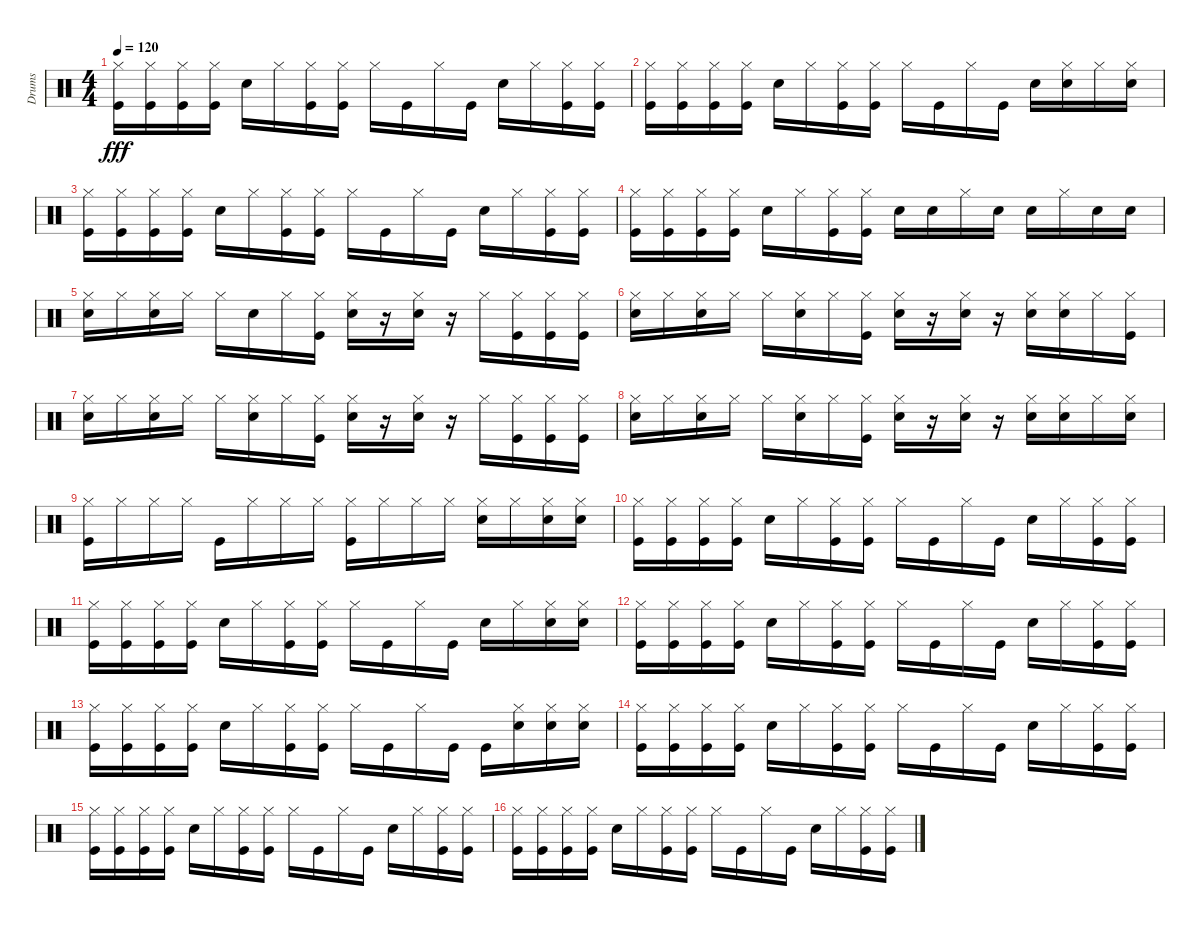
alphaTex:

\track ("Drums" "Drums") {instrument percussion}
\staff {score}
\articulation defaults
\ts (4 4)
\tempo 120
\clef neutral
\ks c
("Kick (hit)" "Hi-Hat (closed)").16{dy fff} ("Kick (hit)" "Hi-Hat (closed)").16 ("Kick (hit)" "Hi-Hat (closed)").16 ("Kick (hit)" "Hi-Hat (closed)").16 "Snare (hit) 2".16 "Hi-Hat (closed)".16 ("Kick (hit)" "Hi-Hat (closed)").16 ("Kick (hit)" "Hi-Hat (closed)").16 "Hi-Hat (closed)".16 "Kick (hit)".16 "Hi-Hat (closed)".16 "Kick (hit)".16 "Snare (hit) 2".16 "Hi-Hat (closed)".16 ("Kick (hit)" "Hi-Hat (closed)").16 ("Kick (hit)" "Hi-Hat (closed)").16 |
("Kick (hit)" "Hi-Hat (closed)").16 ("Kick (hit)" "Hi-Hat (closed)").16 ("Kick (hit)" "Hi-Hat (closed)").16 ("Kick (hit)" "Hi-Hat (closed)").16 "Snare (hit) 2".16 "Hi-Hat (closed)".16 ("Kick (hit)" "Hi-Hat (closed)").16 ("Kick (hit)" "Hi-Hat (closed)").16 "Hi-Hat (closed)".16 "Kick (hit)".16 "Hi-Hat (closed)".16 "Kick (hit)".16 "Snare (hit) 2".16 ("Snare (hit) 2" "Hi-Hat (closed)").16 "Hi-Hat (closed)".16 ("Snare (hit) 2" "Hi-Hat (closed)").16 |
("Kick (hit)" "Hi-Hat (closed)").16 ("Kick (hit)" "Hi-Hat (closed)").16 ("Kick (hit)" "Hi-Hat (closed)").16 ("Kick (hit)" "Hi-Hat (closed)").16 "Snare (hit) 2".16 "Hi-Hat (closed)".16 ("Kick (hit)" "Hi-Hat (closed)").16 ("Kick (hit)" "Hi-Hat (closed)").16 "Hi-Hat (closed)".16 "Kick (hit)".16 "Hi-Hat (closed)".16 "Kick (hit)".16 "Snare (hit) 2".16 "Hi-Hat (closed)".16 ("Kick (hit)" "Hi-Hat (closed)").16 ("Kick (hit)" "Hi-Hat (closed)").16 |
("Kick (hit)" "Hi-Hat (closed)").16 ("Kick (hit)" "Hi-Hat (closed)").16 ("Kick (hit)" "Hi-Hat (closed)").16 ("Kick (hit)" "Hi-Hat (closed)").16 "Snare (hit) 2".16 "Hi-Hat (closed)".16 ("Kick (hit)" "Hi-Hat (closed)").16 ("Kick (hit)" "Hi-Hat (closed)").16 "Snare (hit) 2".16 "Snare (hit) 2".16 "Hi-Hat (closed)".16 "Snare (hit) 2".16 "Snare (hit) 2".16 "Hi-Hat (closed)".16 "Snare (hit) 2".16 "Snare (hit) 2".16 |
("Snare (hit) 2" "Hi-Hat (closed)").16 "Hi-Hat (closed)".16 ("Snare (hit) 2" "Hi-Hat (closed)").16 "Hi-Hat (closed)".16 "Hi-Hat (closed)".16 "Snare (hit) 2".16 "Hi-Hat (closed)".16 ("Kick (hit)" "Hi-Hat (closed)").16 ("Snare (hit) 2" "Hi-Hat (closed)").16 r.16 ("Snare (hit) 2" "Hi-Hat (closed)").16 r.16 "Hi-Hat (closed)".16 ("Kick (hit)" "Hi-Hat (closed)").16 ("Kick (hit)" "Hi-Hat (closed)").16 ("Kick (hit)" "Hi-Hat (closed)").16 |
("Snare (hit) 2" "Hi-Hat (closed)").16 "Hi-Hat (closed)".16 ("Snare (hit) 2" "Hi-Hat (closed)").16 "Hi-Hat (closed)".16 "Hi-Hat (closed)".16 ("Snare (hit) 2" "Hi-Hat (closed)").16 "Hi-Hat (closed)".16 ("Kick (hit)" "Hi-Hat (closed)").16 ("Snare (hit) 2" "Hi-Hat (closed)").16 r.16 ("Snare (hit) 2" "Hi-Hat (closed)").16 r.16 ("Snare (hit) 2" "Hi-Hat (closed)").16 ("Snare (hit) 2" "Hi-Hat (closed)").16 "Hi-Hat (closed)".16 ("Kick (hit)" "Hi-Hat (closed)").16 |
("Snare (hit) 2" "Hi-Hat (closed)").16 "Hi-Hat (closed)".16 ("Snare (hit) 2" "Hi-Hat (closed)").16 "Hi-Hat (closed)".16 "Hi-Hat (closed)".16 ("Snare (hit) 2" "Hi-Hat (closed)").16 "Hi-Hat (closed)".16 ("Kick (hit)" "Hi-Hat (closed)").16 ("Snare (hit) 2" "Hi-Hat (closed)").16 r.16 ("Snare (hit) 2" "Hi-Hat (closed)").16 r.16 "Hi-Hat (closed)".16 ("Kick (hit)" "Hi-Hat (closed)").16 ("Kick (hit)" "Hi-Hat (closed)").16 ("Kick (hit)" "Hi-Hat (closed)").16 |
("Snare (hit) 2" "Hi-Hat (closed)").16 "Hi-Hat (closed)".16 ("Snare (hit) 2" "Hi-Hat (closed)").16 "Hi-Hat (closed)".16 "Hi-Hat (closed)".16 ("Snare (hit) 2" "Hi-Hat (closed)").16 "Hi-Hat (closed)".16 ("Kick (hit)" "Hi-Hat (closed)").16 ("Snare (hit) 2" "Hi-Hat (closed)").16 r.16 ("Snare (hit) 2" "Hi-Hat (closed)").16 r.16 ("Snare (hit) 2" "Hi-Hat (closed)").16 ("Snare (hit) 2" "Hi-Hat (closed)").16 "Hi-Hat (closed)".16 ("Snare (hit) 2" "Hi-Hat (closed)").16 |
("Kick (hit)" "Hi-Hat (closed)").16 "Hi-Hat (closed)".16 "Hi-Hat (closed)".16 "Hi-Hat (closed)".16 "Kick (hit)".16 "Hi-Hat (closed)".16 "Hi-Hat (closed)".16 "Hi-Hat (closed)".16 ("Kick (hit)" "Hi-Hat (closed)").16 "Hi-Hat (closed)".16 "Hi-Hat (closed)".16 "Hi-Hat (closed)".16 ("Snare (hit) 2" "Hi-Hat (closed)").16 "Hi-Hat (closed)".16 ("Snare (hit) 2" "Hi-Hat (closed)").16 ("Snare (hit) 2" "Hi-Hat (closed)").16 |
("Kick (hit)" "Hi-Hat (closed)").16 ("Kick (hit)" "Hi-Hat (closed)").16 ("Kick (hit)" "Hi-Hat (closed)").16 ("Kick (hit)" "Hi-Hat (closed)").16 "Snare (hit) 2".16 "Hi-Hat (closed)".16 ("Kick (hit)" "Hi-Hat (closed)").16 ("Kick (hit)" "Hi-Hat (closed)").16 "Hi-Hat (closed)".16 "Kick (hit)".16 "Hi-Hat (closed)".16 "Kick (hit)".16 "Snare (hit) 2".16 "Hi-Hat (closed)".16 ("Kick (hit)" "Hi-Hat (closed)").16 ("Kick (hit)" "Hi-Hat (closed)").16 |
("Kick (hit)" "Hi-Hat (closed)").16 ("Kick (hit)" "Hi-Hat (closed)").16 ("Kick (hit)" "Hi-Hat (closed)").16 ("Kick (hit)" "Hi-Hat (closed)").16 "Snare (hit) 2".16 "Hi-Hat (closed)".16 ("Kick (hit)" "Hi-Hat (closed)").16 ("Kick (hit)" "Hi-Hat (closed)").16 "Hi-Hat (closed)".16 "Kick (hit)".16 "Hi-Hat (closed)".16 "Kick (hit)".16 "Snare (hit) 2".16 "Hi-Hat (closed)".16 ("Snare (hit) 2" "Hi-Hat (closed)").16 ("Snare (hit) 2" "Hi-Hat (closed)").16 |
("Kick (hit)" "Hi-Hat (closed)").16 ("Kick (hit)" "Hi-Hat (closed)").16 ("Kick (hit)" "Hi-Hat (closed)").16 ("Kick (hit)" "Hi-Hat (closed)").16 "Snare (hit) 2".16 "Hi-Hat (closed)".16 ("Kick (hit)" "Hi-Hat (closed)").16 ("Kick (hit)" "Hi-Hat (closed)").16 "Hi-Hat (closed)".16 "Kick (hit)".16 "Hi-Hat (closed)".16 "Kick (hit)".16 "Snare (hit) 2".16 "Hi-Hat (closed)".16 ("Kick (hit)" "Hi-Hat (closed)").16 ("Kick (hit)" "Hi-Hat (closed)").16 |
("Kick (hit)" "Hi-Hat (closed)").16 ("Kick (hit)" "Hi-Hat (closed)").16 ("Kick (hit)" "Hi-Hat (closed)").16 ("Kick (hit)" "Hi-Hat (closed)").16 "Snare (hit) 2".16 "Hi-Hat (closed)".16 ("Kick (hit)" "Hi-Hat (closed)").16 ("Kick (hit)" "Hi-Hat (closed)").16 "Hi-Hat (closed)".16 "Kick (hit)".16 "Hi-Hat (closed)".16 "Kick (hit)".16 "Kick (hit)".16 ("Snare (hit) 2" "Hi-Hat (closed)").16 ("Snare (hit) 2" "Hi-Hat (closed)").16 ("Snare (hit) 2" "Hi-Hat (closed)").16 |
("Kick (hit)" "Hi-Hat (closed)").16 ("Kick (hit)" "Hi-Hat (closed)").16 ("Kick (hit)" "Hi-Hat (closed)").16 ("Kick (hit)" "Hi-Hat (closed)").16 "Snare (hit) 2".16 "Hi-Hat (closed)".16 ("Kick (hit)" "Hi-Hat (closed)").16 ("Kick (hit)" "Hi-Hat (closed)").16 "Hi-Hat (closed)".16 "Kick (hit)".16 "Hi-Hat (closed)".16 "Kick (hit)".16 "Snare (hit) 2".16 "Hi-Hat (closed)".16 ("Kick (hit)" "Hi-Hat (closed)").16 ("Kick (hit)" "Hi-Hat (closed)").16 |
("Kick (hit)" "Hi-Hat (closed)").16 ("Kick (hit)" "Hi-Hat (closed)").16 ("Kick (hit)" "Hi-Hat (closed)").16 ("Kick (hit)" "Hi-Hat (closed)").16 "Snare (hit) 2".16 "Hi-Hat (closed)".16 ("Kick (hit)" "Hi-Hat (closed)").16 ("Kick (hit)" "Hi-Hat (closed)").16 "Hi-Hat (closed)".16 "Kick (hit)".16 "Hi-Hat (closed)".16 "Kick (hit)".16 "Snare (hit) 2".16 "Hi-Hat (closed)".16 ("Kick (hit)" "Hi-Hat (closed)").16 ("Kick (hit)" "Hi-Hat (closed)").16 |
("Kick (hit)" "Hi-Hat (closed)").16 ("Kick (hit)" "Hi-Hat (closed)").16 ("Kick (hit)" "Hi-Hat (closed)").16 ("Kick (hit)" "Hi-Hat (closed)").16 "Snare (hit) 2".16 "Hi-Hat (closed)".16 ("Kick (hit)" "Hi-Hat (closed)").16 ("Kick (hit)" "Hi-Hat (closed)").16 "Hi-Hat (closed)".16 "Kick (hit)".16 "Hi-Hat (closed)".16 "Kick (hit)".16 "Snare (hit) 2".16 "Hi-Hat (closed)".16 ("Kick (hit)" "Hi-Hat (closed)").16 ("Kick (hit)" "Hi-Hat (closed)").16
